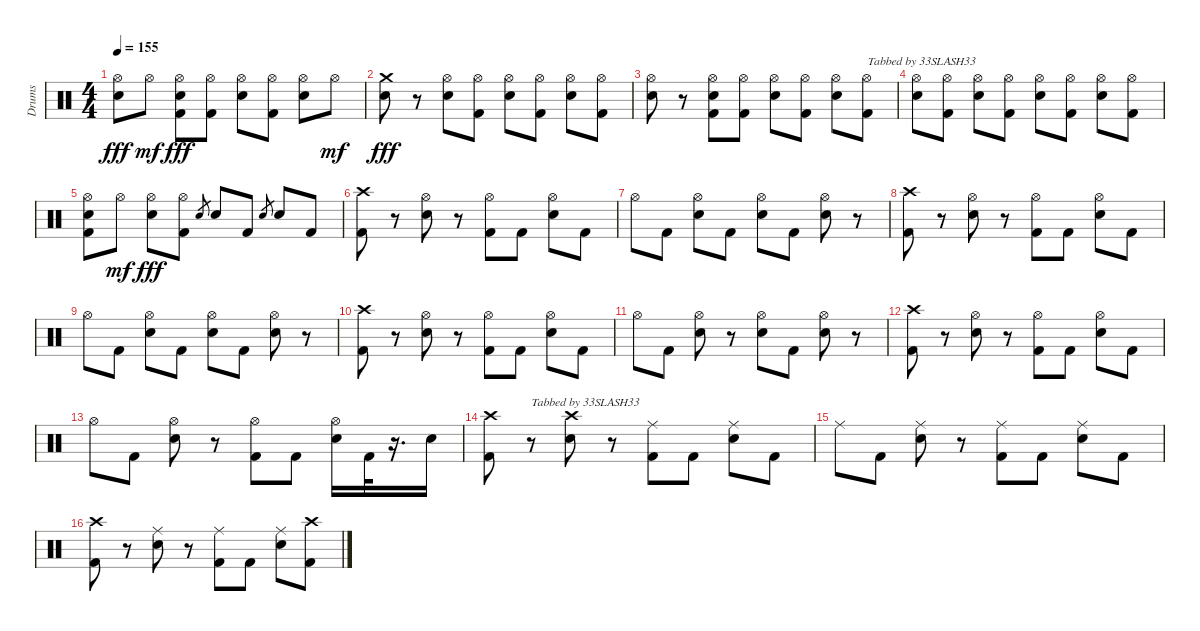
\track ("Drums" "Drums") {instrument percussion}
\staff {score}
\articulation defaults
\ts (4 4)
\tempo 155
\clef neutral
\ks c
("Hi-Hat (open)" "Snare (hit) 2").8{dy fff} "Hi-Hat (open)".8{dy mf} ("Hi-Hat (open)" "Snare (hit) 2" "Kick (hit) 2").8{dy fff} ("Hi-Hat (open)" "Kick (hit) 2").8 ("Hi-Hat (open)" "Snare (hit) 2").8 ("Hi-Hat (open)" "Kick (hit) 2").8 ("Hi-Hat (open)" "Snare (hit) 2").8 "Hi-Hat (open)".8{dy mf} |
("Crash medium (hit)" "Snare (hit) 2").8{dy fff} r.8 ("Hi-Hat (open)" "Snare (hit) 2").8 ("Hi-Hat (open)" "Kick (hit) 2").8 ("Hi-Hat (open)" "Snare (hit) 2").8 ("Hi-Hat (open)" "Kick (hit) 2").8 ("Hi-Hat (open)" "Snare (hit) 2").8 ("Hi-Hat (open)" "Kick (hit) 2").8 |
("Hi-Hat (open)" "Snare (hit) 2").8 r.8 ("Hi-Hat (open)" "Snare (hit) 2" "Kick (hit) 2").8 ("Hi-Hat (open)" "Kick (hit) 2").8 ("Hi-Hat (open)" "Snare (hit) 2").8 ("Hi-Hat (open)" "Kick (hit) 2").8 ("Hi-Hat (open)" "Snare (hit) 2").8 ("Hi-Hat (open)" "Kick (hit) 2").8{txt "Tabbed by 33SLASH33"} |
("Hi-Hat (open)" "Snare (hit) 2").8 ("Hi-Hat (open)" "Kick (hit) 2").8 ("Hi-Hat (open)" "Snare (hit) 2").8 ("Hi-Hat (open)" "Kick (hit) 2").8 ("Hi-Hat (open)" "Snare (hit) 2").8 ("Hi-Hat (open)" "Kick (hit) 2").8 ("Hi-Hat (open)" "Snare (hit) 2").8 ("Hi-Hat (open)" "Kick (hit) 2").8 |
("Hi-Hat (open)" "Snare (hit) 2" "Kick (hit) 2").8 "Hi-Hat (open)".8{dy mf} ("Hi-Hat (open)" "Snare (hit) 2").8{dy fff} ("Hi-Hat (open)" "Kick (hit) 2").8 "Snare (hit) 2".8{gr} "Snare (hit) 2".8 "Kick (hit) 2".8 "Snare (hit) 2".8{gr} "Snare (hit) 2".8 "Kick (hit) 2".8 |
("Crash high (hit)" "Kick (hit) 2").8 r.8 ("Hi-Hat (open)" "Snare (hit) 2").8 r.8 ("Hi-Hat (open)" "Kick (hit) 2").8 "Kick (hit) 2".8 ("Hi-Hat (open)" "Snare (hit) 2").8 "Kick (hit) 2".8 |
"Hi-Hat (open)".8 "Kick (hit) 2".8 ("Hi-Hat (open)" "Snare (hit) 2").8 "Kick (hit) 2".8 ("Hi-Hat (open)" "Snare (hit) 2").8 "Kick (hit) 2".8 ("Hi-Hat (open)" "Snare (hit) 2").8 r.8 |
("Crash high (hit)" "Kick (hit) 2").8 r.8 ("Hi-Hat (open)" "Snare (hit) 2").8 r.8 ("Hi-Hat (open)" "Kick (hit) 2").8 "Kick (hit) 2".8 ("Hi-Hat (open)" "Snare (hit) 2").8 "Kick (hit) 2".8 |
"Hi-Hat (open)".8 "Kick (hit) 2".8 ("Hi-Hat (open)" "Snare (hit) 2").8 "Kick (hit) 2".8 ("Hi-Hat (open)" "Snare (hit) 2").8 "Kick (hit) 2".8 ("Hi-Hat (open)" "Snare (hit) 2").8 r.8 |
("Crash high (hit)" "Kick (hit) 2").8 r.8 ("Hi-Hat (open)" "Snare (hit) 2").8 r.8 ("Hi-Hat (open)" "Kick (hit) 2").8 "Kick (hit) 2".8 ("Hi-Hat (open)" "Snare (hit) 2").8 "Kick (hit) 2".8 |
"Hi-Hat (open)".8 "Kick (hit) 2".8 ("Hi-Hat (open)" "Snare (hit) 2").8 r.8 ("Hi-Hat (open)" "Snare (hit) 2").8 "Kick (hit) 2".8 ("Hi-Hat (open)" "Snare (hit) 2").8 r.8 |
("Crash high (hit)" "Kick (hit) 2").8 r.8 ("Hi-Hat (open)" "Snare (hit) 2").8 r.8 ("Hi-Hat (open)" "Kick (hit) 2").8 "Kick (hit) 2".8 ("Hi-Hat (open)" "Snare (hit) 2").8 "Kick (hit) 2".8 |
"Hi-Hat (open)".8 "Kick (hit) 2".8 ("Hi-Hat (open)" "Snare (hit) 2").8 r.8 ("Hi-Hat (open)" "Kick (hit) 2").8 "Kick (hit) 2".8 ("Hi-Hat (open)" "Snare (hit) 2").16 "Kick (hit) 2".32 r.16{d} "Snare (hit) 2".16 |
("Crash high (hit)" "Kick (hit) 2").8 r.8{txt "Tabbed by 33SLASH33"} ("Crash high (hit)" "Snare (hit) 2").8 r.8 ("Ride (middle)" "Kick (hit) 2").8 "Kick (hit) 2".8 ("Ride (middle)" "Snare (hit) 2").8 "Kick (hit) 2".8 |
"Ride (middle)".8 "Kick (hit) 2".8 ("Ride (middle)" "Snare (hit) 2").8 r.8 ("Ride (middle)" "Kick (hit) 2").8 "Kick (hit) 2".8 ("Ride (middle)" "Snare (hit) 2").8 "Kick (hit) 2".8 |
("Crash high (hit)" "Kick (hit) 2").8 r.8 ("Ride (middle)" "Snare (hit) 2").8 r.8 ("Ride (middle)" "Kick (hit) 2").8 "Kick (hit) 2".8 ("Ride (middle)" "Snare (hit) 2").8 ("Crash high (hit)" "Kick (hit) 2").8
